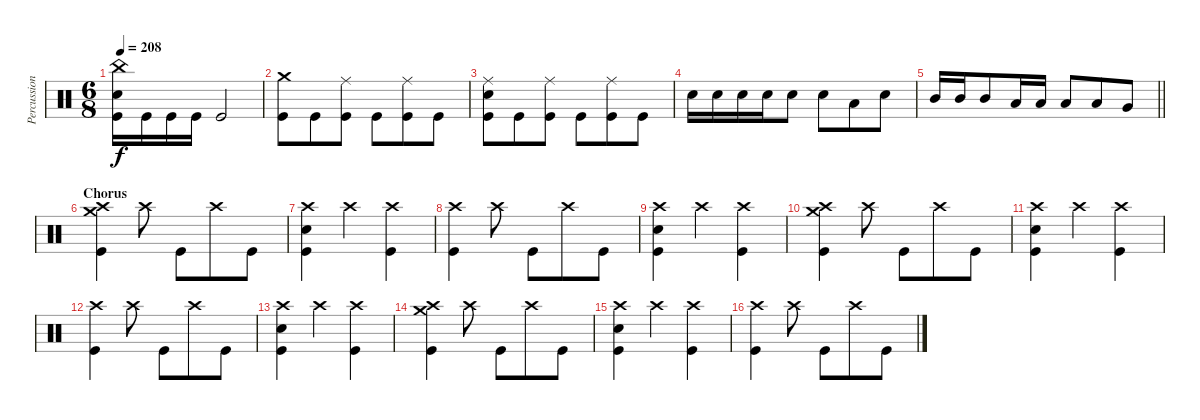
\track ("Percussion" "Percussion") {instrument percussion}
\staff {score}
\articulation defaults
\ts (6 8)
\tempo 208
\clef neutral
\ks c
("China (hit)" "Electric Snare (hit)" "Kick (hit)").16{dy f} "Kick (hit)".16 "Kick (hit)".16 "Kick (hit)".16 "Kick (hit)".2 |
("Crash medium (hit)" "Kick (hit)").8 "Kick (hit)".8 ("Ride (middle)" "Kick (hit)").8 "Kick (hit)".8 ("Ride (middle)" "Kick (hit)").8 "Kick (hit)".8 |
("Ride (middle)" "Electric Snare (hit)" "Kick (hit)").8 "Kick (hit)".8 ("Ride (middle)" "Kick (hit)").8 "Kick (hit)".8 ("Ride (middle)" "Kick (hit)").8 "Kick (hit)".8 |
"Electric Snare (hit)".16 "Electric Snare (hit)".16 "Electric Snare (hit)".16 "Electric Snare (hit)".16 "Electric Snare (hit)".8 "Electric Snare (hit)".8 "Low Floor Tom (hit)".8 "Electric Snare (hit)".8 |
\barLineRight lightlight "Mid Tom (hit)".16 "Mid Tom (hit)".16 "Mid Tom (hit)".8 "Low Tom (hit)".16 "Low Tom (hit)".16 "Low Tom (hit)".8 "Low Floor Tom (hit)".8 "Very Low Tom (hit)".8
|
\section ("" "Chorus")
("Crash medium (hit)" "Crash high (hit)" "Kick (hit)").4 "Crash high (hit)".8 "Kick (hit)".8 "Crash high (hit)".8 "Kick (hit)".8 |
("Crash high (hit)" "Electric Snare (hit)" "Kick (hit)").4 "Crash high (hit)".4 ("Crash high (hit)" "Kick (hit)").4 |
("Crash high (hit)" "Kick (hit)").4 "Crash high (hit)".8 "Kick (hit)".8 "Crash high (hit)".8 "Kick (hit)".8 |
("Crash high (hit)" "Electric Snare (hit)" "Kick (hit)").4 "Crash high (hit)".4 ("Crash high (hit)" "Kick (hit)").4 |
("Crash medium (hit)" "Crash high (hit)" "Kick (hit)").4 "Crash high (hit)".8 "Kick (hit)".8 "Crash high (hit)".8 "Kick (hit)".8 |
("Crash high (hit)" "Electric Snare (hit)" "Kick (hit)").4 "Crash high (hit)".4 ("Crash high (hit)" "Kick (hit)").4 |
("Crash high (hit)" "Kick (hit)").4 "Crash high (hit)".8 "Kick (hit)".8 "Crash high (hit)".8 "Kick (hit)".8 |
("Crash high (hit)" "Electric Snare (hit)" "Kick (hit)").4 "Crash high (hit)".4 ("Crash high (hit)" "Kick (hit)").4 |
("Crash medium (hit)" "Crash high (hit)" "Kick (hit)").4 "Crash high (hit)".8 "Kick (hit)".8 "Crash high (hit)".8 "Kick (hit)".8 |
("Crash high (hit)" "Electric Snare (hit)" "Kick (hit)").4 "Crash high (hit)".4 ("Crash high (hit)" "Kick (hit)").4 |
("Crash high (hit)" "Kick (hit)").4 "Crash high (hit)".8 "Kick (hit)".8 "Crash high (hit)".8 "Kick (hit)".8
